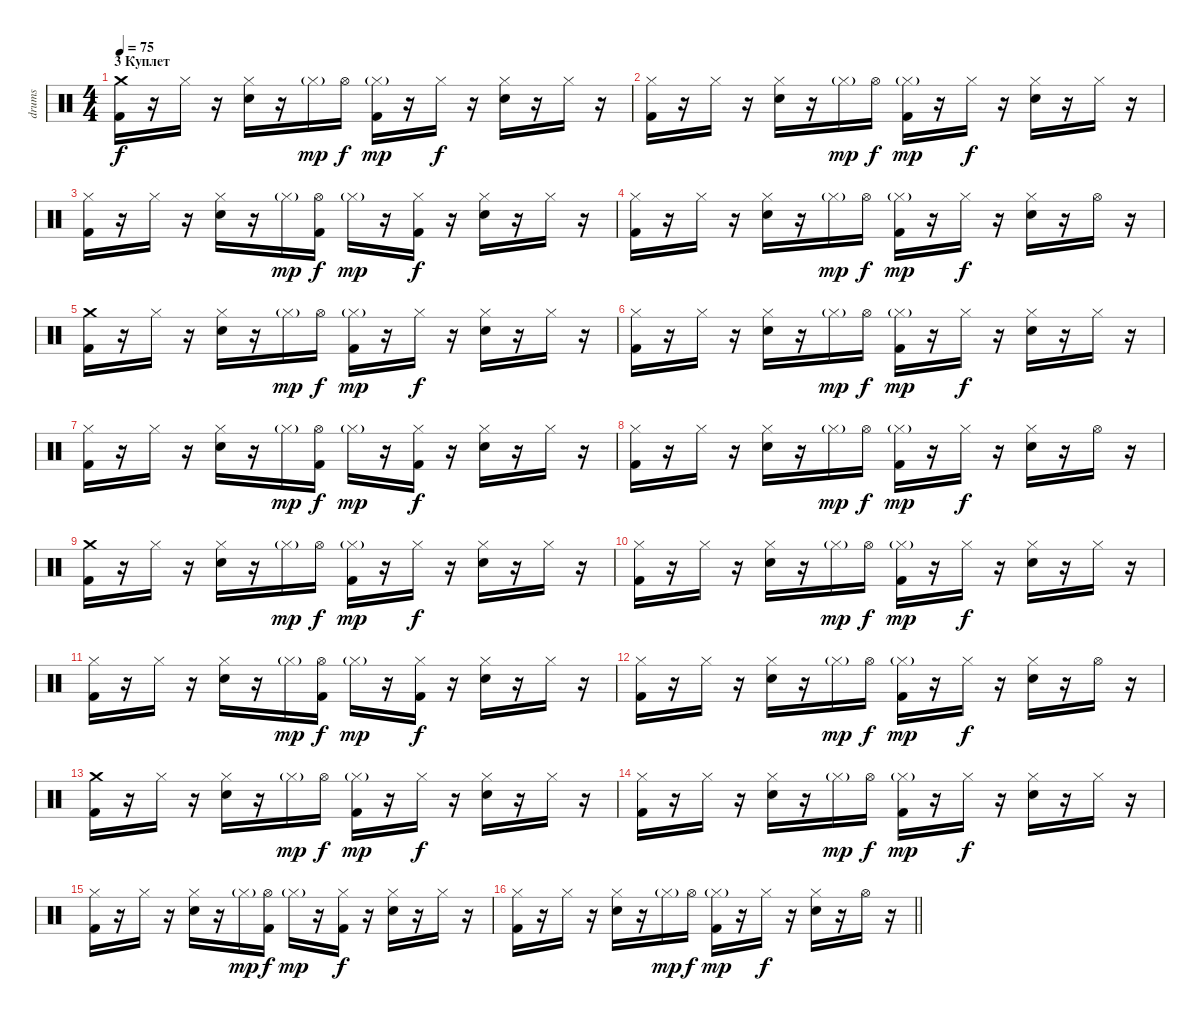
\track ("drums" "drums") {instrument percussion}
\staff {score}
\articulation defaults
\ts (4 4)
\section ("" "3 Куплет")
\tempo 75
\clef neutral
\ks c
("Crash medium (hit)" "Kick (hit) 2").16{dy f} r.16 "Hi-Hat (closed)".16 r.16 ("Hi-Hat (closed)" "Snare (hit) 2").16 r.16 "Hi-Hat (closed)"{g}.16{dy mp} "Hi-Hat (open)".16{dy f} ("Hi-Hat (closed)"{g} "Kick (hit) 2").16{dy mp} r.16 "Hi-Hat (closed)".16{dy f} r.16 ("Hi-Hat (closed)" "Snare (hit) 2").16 r.16 "Hi-Hat (closed)".16 r.16 |
("Hi-Hat (closed)" "Kick (hit) 2").16 r.16 "Hi-Hat (closed)".16 r.16 ("Hi-Hat (closed)" "Snare (hit) 2").16 r.16 "Hi-Hat (closed)"{g}.16{dy mp} "Hi-Hat (open)".16{dy f} ("Hi-Hat (closed)"{g} "Kick (hit) 2").16{dy mp} r.16 "Hi-Hat (closed)".16{dy f} r.16 ("Hi-Hat (closed)" "Snare (hit) 2").16 r.16 "Hi-Hat (closed)".16 r.16 |
("Hi-Hat (closed)" "Kick (hit) 2").16 r.16 "Hi-Hat (closed)".16 r.16 ("Hi-Hat (closed)" "Snare (hit) 2").16 r.16 "Hi-Hat (closed)"{g}.16{dy mp} ("Hi-Hat (open)" "Kick (hit) 2").16{dy f} "Hi-Hat (closed)"{g}.16{dy mp} r.16 ("Hi-Hat (closed)" "Kick (hit) 2").16{dy f} r.16 ("Hi-Hat (closed)" "Snare (hit) 2").16 r.16 "Hi-Hat (closed)".16 r.16 |
("Hi-Hat (closed)" "Kick (hit) 2").16 r.16 "Hi-Hat (closed)".16 r.16 ("Hi-Hat (closed)" "Snare (hit) 2").16 r.16 "Hi-Hat (closed)"{g}.16{dy mp} "Hi-Hat (open)".16{dy f} ("Hi-Hat (closed)"{g} "Kick (hit) 2").16{dy mp} r.16 "Hi-Hat (closed)".16{dy f} r.16 ("Hi-Hat (closed)" "Snare (hit) 2").16 r.16 "Hi-Hat (open)".16 r.16 |
("Crash medium (hit)" "Kick (hit) 2").16 r.16 "Hi-Hat (closed)".16 r.16 ("Hi-Hat (closed)" "Snare (hit) 2").16 r.16 "Hi-Hat (closed)"{g}.16{dy mp} "Hi-Hat (open)".16{dy f} ("Hi-Hat (closed)"{g} "Kick (hit) 2").16{dy mp} r.16 "Hi-Hat (closed)".16{dy f} r.16 ("Hi-Hat (closed)" "Snare (hit) 2").16 r.16 "Hi-Hat (closed)".16 r.16 |
("Hi-Hat (closed)" "Kick (hit) 2").16 r.16 "Hi-Hat (closed)".16 r.16 ("Hi-Hat (closed)" "Snare (hit) 2").16 r.16 "Hi-Hat (closed)"{g}.16{dy mp} "Hi-Hat (open)".16{dy f} ("Hi-Hat (closed)"{g} "Kick (hit) 2").16{dy mp} r.16 "Hi-Hat (closed)".16{dy f} r.16 ("Hi-Hat (closed)" "Snare (hit) 2").16 r.16 "Hi-Hat (closed)".16 r.16 |
("Hi-Hat (closed)" "Kick (hit) 2").16 r.16 "Hi-Hat (closed)".16 r.16 ("Hi-Hat (closed)" "Snare (hit) 2").16 r.16 "Hi-Hat (closed)"{g}.16{dy mp} ("Hi-Hat (open)" "Kick (hit) 2").16{dy f} "Hi-Hat (closed)"{g}.16{dy mp} r.16 ("Hi-Hat (closed)" "Kick (hit) 2").16{dy f} r.16 ("Hi-Hat (closed)" "Snare (hit) 2").16 r.16 "Hi-Hat (closed)".16 r.16 |
("Hi-Hat (closed)" "Kick (hit) 2").16 r.16 "Hi-Hat (closed)".16 r.16 ("Hi-Hat (closed)" "Snare (hit) 2").16 r.16 "Hi-Hat (closed)"{g}.16{dy mp} "Hi-Hat (open)".16{dy f} ("Hi-Hat (closed)"{g} "Kick (hit) 2").16{dy mp} r.16 "Hi-Hat (closed)".16{dy f} r.16 ("Hi-Hat (closed)" "Snare (hit) 2").16 r.16 "Hi-Hat (open)".16 r.16 |
("Crash medium (hit)" "Kick (hit) 2").16 r.16 "Hi-Hat (closed)".16 r.16 ("Hi-Hat (closed)" "Snare (hit) 2").16 r.16 "Hi-Hat (closed)"{g}.16{dy mp} "Hi-Hat (open)".16{dy f} ("Hi-Hat (closed)"{g} "Kick (hit) 2").16{dy mp} r.16 "Hi-Hat (closed)".16{dy f} r.16 ("Hi-Hat (closed)" "Snare (hit) 2").16 r.16 "Hi-Hat (closed)".16 r.16 |
("Hi-Hat (closed)" "Kick (hit) 2").16 r.16 "Hi-Hat (closed)".16 r.16 ("Hi-Hat (closed)" "Snare (hit) 2").16 r.16 "Hi-Hat (closed)"{g}.16{dy mp} "Hi-Hat (open)".16{dy f} ("Hi-Hat (closed)"{g} "Kick (hit) 2").16{dy mp} r.16 "Hi-Hat (closed)".16{dy f} r.16 ("Hi-Hat (closed)" "Snare (hit) 2").16 r.16 "Hi-Hat (closed)".16 r.16 |
("Hi-Hat (closed)" "Kick (hit) 2").16 r.16 "Hi-Hat (closed)".16 r.16 ("Hi-Hat (closed)" "Snare (hit) 2").16 r.16 "Hi-Hat (closed)"{g}.16{dy mp} ("Hi-Hat (open)" "Kick (hit) 2").16{dy f} "Hi-Hat (closed)"{g}.16{dy mp} r.16 ("Hi-Hat (closed)" "Kick (hit) 2").16{dy f} r.16 ("Hi-Hat (closed)" "Snare (hit) 2").16 r.16 "Hi-Hat (closed)".16 r.16 |
("Hi-Hat (closed)" "Kick (hit) 2").16 r.16 "Hi-Hat (closed)".16 r.16 ("Hi-Hat (closed)" "Snare (hit) 2").16 r.16 "Hi-Hat (closed)"{g}.16{dy mp} "Hi-Hat (open)".16{dy f} ("Hi-Hat (closed)"{g} "Kick (hit) 2").16{dy mp} r.16 "Hi-Hat (closed)".16{dy f} r.16 ("Hi-Hat (closed)" "Snare (hit) 2").16 r.16 "Hi-Hat (open)".16 r.16 |
("Crash medium (hit)" "Kick (hit) 2").16 r.16 "Hi-Hat (closed)".16 r.16 ("Hi-Hat (closed)" "Snare (hit) 2").16 r.16 "Hi-Hat (closed)"{g}.16{dy mp} "Hi-Hat (open)".16{dy f} ("Hi-Hat (closed)"{g} "Kick (hit) 2").16{dy mp} r.16 "Hi-Hat (closed)".16{dy f} r.16 ("Hi-Hat (closed)" "Snare (hit) 2").16 r.16 "Hi-Hat (closed)".16 r.16 |
("Hi-Hat (closed)" "Kick (hit) 2").16 r.16 "Hi-Hat (closed)".16 r.16 ("Hi-Hat (closed)" "Snare (hit) 2").16 r.16 "Hi-Hat (closed)"{g}.16{dy mp} "Hi-Hat (open)".16{dy f} ("Hi-Hat (closed)"{g} "Kick (hit) 2").16{dy mp} r.16 "Hi-Hat (closed)".16{dy f} r.16 ("Hi-Hat (closed)" "Snare (hit) 2").16 r.16 "Hi-Hat (closed)".16 r.16 |
("Hi-Hat (closed)" "Kick (hit) 2").16 r.16 "Hi-Hat (closed)".16 r.16 ("Hi-Hat (closed)" "Snare (hit) 2").16 r.16 "Hi-Hat (closed)"{g}.16{dy mp} ("Hi-Hat (open)" "Kick (hit) 2").16{dy f} "Hi-Hat (closed)"{g}.16{dy mp} r.16 ("Hi-Hat (closed)" "Kick (hit) 2").16{dy f} r.16 ("Hi-Hat (closed)" "Snare (hit) 2").16 r.16 "Hi-Hat (closed)".16 r.16 |
\barLineRight lightlight
("Hi-Hat (closed)" "Kick (hit) 2").16 r.16 "Hi-Hat (closed)".16 r.16 ("Hi-Hat (closed)" "Snare (hit) 2").16 r.16 "Hi-Hat (closed)"{g}.16{dy mp} "Hi-Hat (open)".16{dy f} ("Hi-Hat (closed)"{g} "Kick (hit) 2").16{dy mp} r.16 "Hi-Hat (closed)".16{dy f} r.16 ("Hi-Hat (closed)" "Snare (hit) 2").16 r.16 "Hi-Hat (open)".16 r.16
